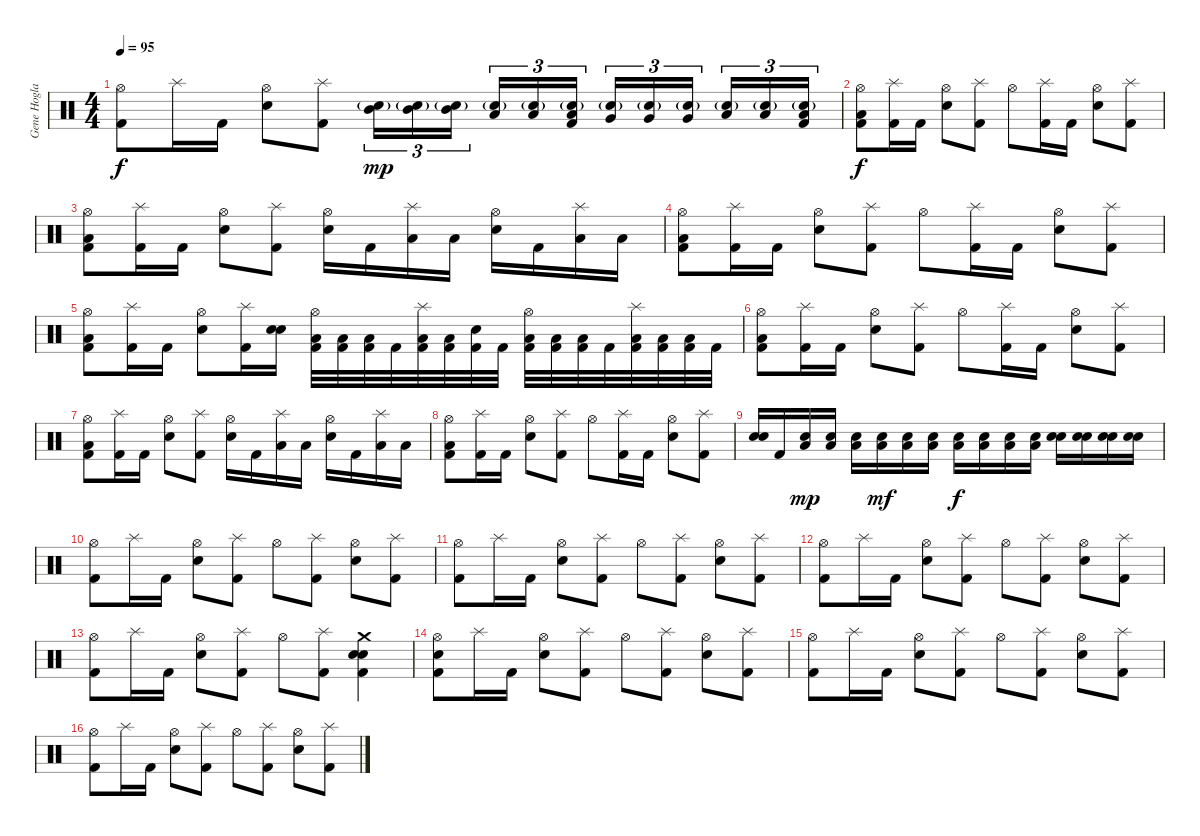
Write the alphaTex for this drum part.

\track ("Gene Hoglan" "Gene Hogla") {instrument percussion}
\staff {score}
\articulation defaults
\ts (4 4)
\tempo 95
\clef neutral
\ks c
("Hi-Hat (open)" "Kick (hit) 2").8{dy f} "Splash (hit)".16 "Kick (hit) 2".16 ("Hi-Hat (open)" "Electric Snare (hit)").8 ("Splash (hit)" "Kick (hit) 2").8 ("Mid Tom (hit)" "Electric Snare (hit)"{g}).16{tu (3 2) dy mp} ("Mid Tom (hit)" "Electric Snare (hit)"{g}).16{tu (3 2)} ("Mid Tom (hit)" "Electric Snare (hit)"{g}).16{tu (3 2)} ("Low Tom (hit)" "Electric Snare (hit)"{g}).16{tu (3 2)} ("Low Tom (hit)" "Electric Snare (hit)"{g}).16{tu (3 2)} ("Low Tom (hit)" "Electric Snare (hit)"{g} "Kick (hit) 2").16{tu (3 2)} ("Very Low Tom (hit)" "Electric Snare (hit)"{g}).16{tu (3 2)} ("Very Low Tom (hit)" "Electric Snare (hit)"{g}).16{tu (3 2)} ("Very Low Tom (hit)" "Electric Snare (hit)"{g}).16{tu (3 2)} ("Low Floor Tom (hit)" "Electric Snare (hit)"{g}).16{tu (3 2)} ("Low Floor Tom (hit)" "Electric Snare (hit)"{g}).16{tu (3 2)} ("Low Floor Tom (hit)" "Electric Snare (hit)"{g} "Kick (hit) 2").16{tu (3 2)} |
("Hi-Hat (open)" "Low Floor Tom (hit)" "Kick (hit) 2").8{dy f} ("Splash (hit)" "Kick (hit) 2").16 "Kick (hit) 2".16 ("Hi-Hat (open)" "Snare (hit) 2").8 ("Splash (hit)" "Kick (hit) 2").8 "Hi-Hat (open)".8 ("Splash (hit)" "Kick (hit) 2").16 "Kick (hit) 2".16 ("Hi-Hat (open)" "Electric Snare (hit)").8 ("Splash (hit)" "Kick (hit) 2").8 |
("Hi-Hat (open)" "Low Floor Tom (hit)" "Kick (hit) 2").8 ("Splash (hit)" "Kick (hit) 2").16 "Kick (hit) 2".16 ("Hi-Hat (open)" "Snare (hit) 2").8 ("Splash (hit)" "Kick (hit) 2").8 ("Hi-Hat (open)" "Electric Snare (hit)").16 "Kick (hit) 2".16 ("Splash (hit)" "Low Floor Tom (hit)").16 "Low Floor Tom (hit)".16 ("Hi-Hat (open)" "Electric Snare (hit)").16 "Kick (hit) 2".16 ("Splash (hit)" "Low Floor Tom (hit)").16 "Low Floor Tom (hit)".16 |
("Hi-Hat (open)" "Low Floor Tom (hit)" "Kick (hit) 2").8 ("Splash (hit)" "Kick (hit) 2").16 "Kick (hit) 2".16 ("Hi-Hat (open)" "Snare (hit) 2").8 ("Splash (hit)" "Kick (hit) 2").8 "Hi-Hat (open)".8 ("Splash (hit)" "Kick (hit) 2").16 "Kick (hit) 2".16 ("Hi-Hat (open)" "Electric Snare (hit)").8 ("Splash (hit)" "Kick (hit) 2").8 |
("Hi-Hat (open)" "Low Floor Tom (hit)" "Kick (hit) 2").8 ("Splash (hit)" "Kick (hit) 2").16 "Kick (hit) 2".16 ("Hi-Hat (open)" "Snare (hit) 2").8 ("Splash (hit)" "Kick (hit) 2").16 ("Electric Snare (hit)" "Snare (hit) 2").16 ("Hi-Hat (open)" "Low Floor Tom (hit)" "Kick (hit) 2").32 ("Low Floor Tom (hit)" "Kick (hit) 2").32 ("Low Floor Tom (hit)" "Kick (hit) 2").32 "Kick (hit) 2".32 ("Splash (hit)" "Low Floor Tom (hit)" "Kick (hit) 2").32 ("Low Floor Tom (hit)" "Kick (hit) 2").32 ("Snare (hit)" "Kick (hit) 2").32 "Kick (hit) 2".32 ("Hi-Hat (open)" "Low Floor Tom (hit)" "Kick (hit) 2").32 ("Low Floor Tom (hit)" "Kick (hit) 2").32 ("Low Floor Tom (hit)" "Kick (hit) 2").32 "Kick (hit) 2".32 ("Splash (hit)" "Low Floor Tom (hit)" "Kick (hit) 2").32 ("Low Floor Tom (hit)" "Kick (hit) 2").32 ("Low Floor Tom (hit)" "Kick (hit) 2").32 "Kick (hit) 2".32 |
("Hi-Hat (open)" "Low Floor Tom (hit)" "Kick (hit) 2").8 ("Splash (hit)" "Kick (hit) 2").16 "Kick (hit) 2".16 ("Hi-Hat (open)" "Snare (hit) 2").8 ("Splash (hit)" "Kick (hit) 2").8 "Hi-Hat (open)".8 ("Splash (hit)" "Kick (hit) 2").16 "Kick (hit) 2".16 ("Hi-Hat (open)" "Electric Snare (hit)").8 ("Splash (hit)" "Kick (hit) 2").8 |
("Hi-Hat (open)" "Low Floor Tom (hit)" "Kick (hit) 2").8 ("Splash (hit)" "Kick (hit) 2").16 "Kick (hit) 2".16 ("Hi-Hat (open)" "Snare (hit) 2").8 ("Splash (hit)" "Kick (hit) 2").8 ("Hi-Hat (open)" "Electric Snare (hit)").16 "Kick (hit) 2".16 ("Splash (hit)" "Low Floor Tom (hit)").16 "Low Floor Tom (hit)".16 ("Hi-Hat (open)" "Electric Snare (hit)").16 "Kick (hit) 2".16 ("Splash (hit)" "Low Floor Tom (hit)").16 "Low Floor Tom (hit)".16 |
("Hi-Hat (open)" "Low Floor Tom (hit)" "Kick (hit) 2").8 ("Splash (hit)" "Kick (hit) 2").16 "Kick (hit) 2".16 ("Hi-Hat (open)" "Snare (hit) 2").8 ("Splash (hit)" "Kick (hit) 2").8 "Hi-Hat (open)".8 ("Splash (hit)" "Kick (hit) 2").16 "Kick (hit) 2".16 ("Hi-Hat (open)" "Electric Snare (hit)").8 ("Splash (hit)" "Kick (hit) 2").8 |
("Electric Snare (hit)" "Snare (hit) 2").16 "Kick (hit) 2".16 ("Low Floor Tom (hit)" "Electric Snare (hit)").16{dy mp} ("Low Floor Tom (hit)" "Electric Snare (hit)").16 ("Low Floor Tom (hit)" "Electric Snare (hit)").16 ("Low Floor Tom (hit)" "Electric Snare (hit)").16{dy mf} ("Low Floor Tom (hit)" "Electric Snare (hit)").16 ("Low Floor Tom (hit)" "Electric Snare (hit)").16 ("Low Floor Tom (hit)" "Electric Snare (hit)").16{dy f} ("Low Floor Tom (hit)" "Electric Snare (hit)").16 ("Low Floor Tom (hit)" "Electric Snare (hit)").16 ("Low Floor Tom (hit)" "Electric Snare (hit)").16 ("Snare (hit) 2" "Electric Snare (hit)").16 ("Snare (hit) 2" "Electric Snare (hit)").16 ("Snare (hit) 2" "Electric Snare (hit)").16 ("Snare (hit) 2" "Electric Snare (hit)").16 |
("Hi-Hat (open)" "Kick (hit) 2").8 "Splash (hit)".16 "Kick (hit) 2".16 ("Hi-Hat (open)" "Electric Snare (hit)").8 ("Splash (hit)" "Kick (hit) 2").8 "Hi-Hat (open)".8 ("Splash (hit)" "Kick (hit) 2").8 ("Hi-Hat (open)" "Electric Snare (hit)").8 ("Splash (hit)" "Kick (hit) 2").8 |
("Hi-Hat (open)" "Kick (hit) 2").8 "Splash (hit)".16 "Kick (hit) 2".16 ("Hi-Hat (open)" "Electric Snare (hit)").8 ("Splash (hit)" "Kick (hit) 2").8 "Hi-Hat (open)".8 ("Splash (hit)" "Kick (hit) 2").8 ("Hi-Hat (open)" "Electric Snare (hit)").8 ("Splash (hit)" "Kick (hit) 2").8 |
("Hi-Hat (open)" "Kick (hit) 2").8 "Splash (hit)".16 "Kick (hit) 2".16 ("Hi-Hat (open)" "Electric Snare (hit)").8 ("Splash (hit)" "Kick (hit) 2").8 "Hi-Hat (open)".8 ("Splash (hit)" "Kick (hit) 2").8 ("Hi-Hat (open)" "Electric Snare (hit)").8 ("Splash (hit)" "Kick (hit) 2").8 |
("Hi-Hat (open)" "Kick (hit) 2").8 "Splash (hit)".16 "Kick (hit) 2".16 ("Hi-Hat (open)" "Electric Snare (hit)").8 ("Splash (hit)" "Kick (hit) 2").8 "Hi-Hat (open)".8 ("Splash (hit)" "Kick (hit) 2").8 ("Snare (hit) 2" "Crash medium (hit)" "Electric Snare (hit)" "Kick (hit) 2").4 |
("Hi-Hat (open)" "Electric Snare (hit)" "Kick (hit) 2").8 "Splash (hit)".16 "Kick (hit) 2".16 ("Hi-Hat (open)" "Electric Snare (hit)").8 ("Splash (hit)" "Kick (hit) 2").8 "Hi-Hat (open)".8 ("Splash (hit)" "Kick (hit) 2").8 ("Hi-Hat (open)" "Electric Snare (hit)").8 ("Splash (hit)" "Kick (hit) 2").8 |
("Hi-Hat (open)" "Kick (hit) 2").8 "Splash (hit)".16 "Kick (hit) 2".16 ("Hi-Hat (open)" "Electric Snare (hit)").8 ("Splash (hit)" "Kick (hit) 2").8 "Hi-Hat (open)".8 ("Splash (hit)" "Kick (hit) 2").8 ("Hi-Hat (open)" "Electric Snare (hit)").8 ("Splash (hit)" "Kick (hit) 2").8 |
("Hi-Hat (open)" "Kick (hit) 2").8 "Splash (hit)".16 "Kick (hit) 2".16 ("Hi-Hat (open)" "Electric Snare (hit)").8 ("Splash (hit)" "Kick (hit) 2").8 "Hi-Hat (open)".8 ("Splash (hit)" "Kick (hit) 2").8 ("Hi-Hat (open)" "Electric Snare (hit)").8 ("Splash (hit)" "Kick (hit) 2").8
